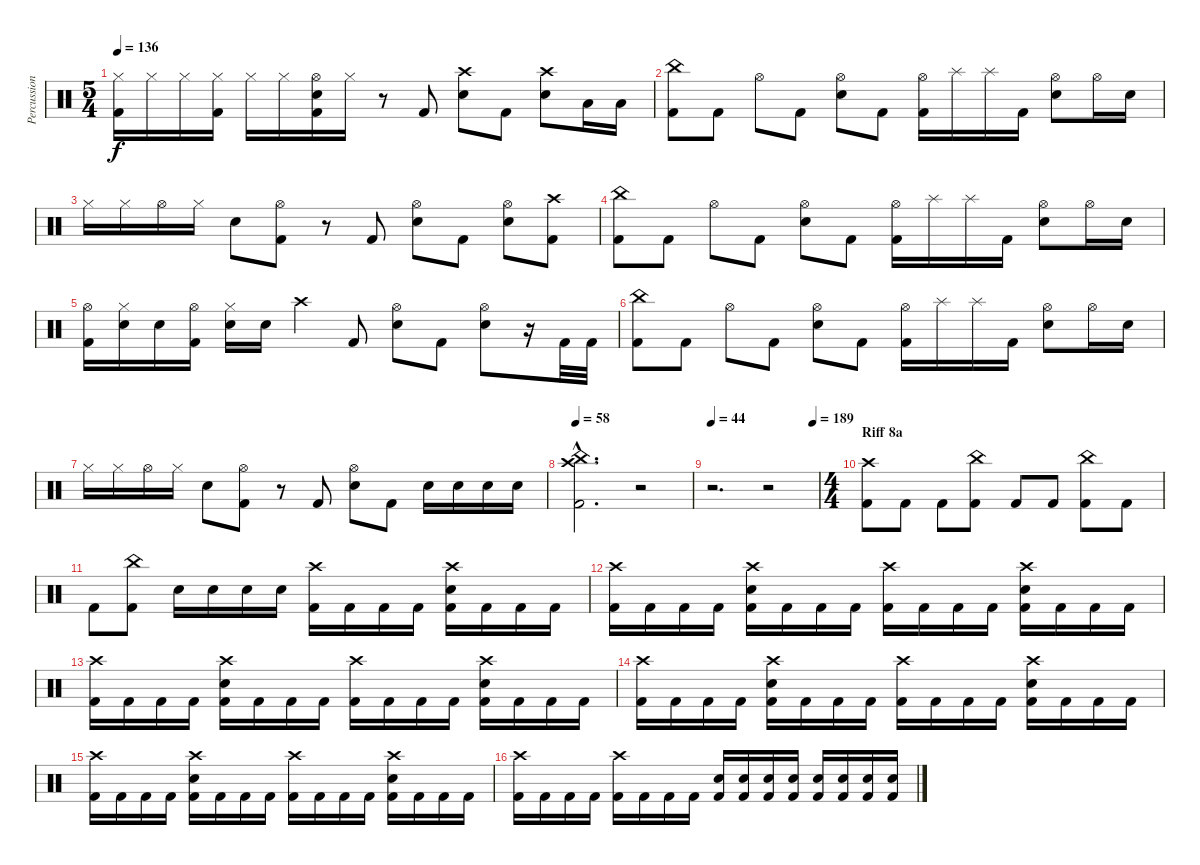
\track ("Percussion" "Percussion") {instrument percussion}
\staff {score}
\articulation defaults
\ts (5 4)
\tempo 136
\clef neutral
\ks c
("Hi-Hat (closed)" "Kick (hit) 2").16{dy f} "Hi-Hat (closed)".16 "Hi-Hat (closed)".16 ("Hi-Hat (closed)" "Kick (hit) 2").16 "Hi-Hat (closed)".16 "Hi-Hat (closed)".16 ("Hi-Hat (open)" "Electric Snare (hit)" "Kick (hit) 2").16 "Hi-Hat (closed)".16 r.8 "Kick (hit) 2".8 ("Crash high (hit)" "Electric Snare (hit)").8 "Kick (hit) 2".8 ("Crash high (hit)" "Electric Snare (hit)").8 "Low Tom (hit)".16 "Low Floor Tom (hit)".16 |
("China (hit)" "Kick (hit) 2").8 "Kick (hit) 2".8 "Hi-Hat (open)".8 "Kick (hit) 2".8 ("Hi-Hat (open)" "Electric Snare (hit)").8 "Kick (hit) 2".8 ("Hi-Hat (open)" "Kick (hit) 2").16 "Splash (hit)".16 "Splash (hit)".16 "Kick (hit) 2".16 ("Hi-Hat (open)" "Electric Snare (hit)").8 "Hi-Hat (open)".16 "Electric Snare (hit)".16 |
"Hi-Hat (closed)".16 "Hi-Hat (closed)".16 "Hi-Hat (open)".16 "Hi-Hat (closed)".16 "Electric Snare (hit)".8 ("Hi-Hat (open)" "Kick (hit) 2").8 r.8 "Kick (hit) 2".8 ("Hi-Hat (open)" "Electric Snare (hit)").8 "Kick (hit) 2".8 ("Hi-Hat (open)" "Electric Snare (hit)").8 ("Crash high (hit)" "Kick (hit) 2").8 |
("China (hit)" "Kick (hit) 2").8 "Kick (hit) 2".8 "Hi-Hat (open)".8 "Kick (hit) 2".8 ("Hi-Hat (open)" "Electric Snare (hit)").8 "Kick (hit) 2".8 ("Hi-Hat (open)" "Kick (hit) 2").16 "Splash (hit)".16 "Splash (hit)".16 "Kick (hit) 2".16 ("Hi-Hat (open)" "Electric Snare (hit)").8 "Hi-Hat (open)".16 "Electric Snare (hit)".16 |
("Hi-Hat (open)" "Kick (hit) 2").16 ("Hi-Hat (closed)" "Electric Snare (hit)").16 "Electric Snare (hit)".16 ("Hi-Hat (open)" "Kick (hit) 2").16 ("Hi-Hat (closed)" "Electric Snare (hit)").16 "Electric Snare (hit)".16 "Crash high (hit)".4 "Kick (hit) 2".8 ("Hi-Hat (open)" "Electric Snare (hit)").8 "Kick (hit) 2".8 ("Hi-Hat (open)" "Electric Snare (hit)").8 r.16 "Kick (hit) 2".32 "Kick (hit) 2".32 |
("China (hit)" "Kick (hit) 2").8 "Kick (hit) 2".8 "Hi-Hat (open)".8 "Kick (hit) 2".8 ("Hi-Hat (open)" "Electric Snare (hit)").8 "Kick (hit) 2".8 ("Hi-Hat (open)" "Kick (hit) 2").16 "Splash (hit)".16 "Splash (hit)".16 "Kick (hit) 2".16 ("Hi-Hat (open)" "Electric Snare (hit)").8 "Hi-Hat (open)".16 "Electric Snare (hit)".16 |
"Hi-Hat (closed)".16 "Hi-Hat (closed)".16 "Hi-Hat (open)".16 "Hi-Hat (closed)".16 "Electric Snare (hit)".8 ("Hi-Hat (open)" "Kick (hit) 2").8 r.8 "Kick (hit) 2".8 ("Hi-Hat (open)" "Electric Snare (hit)").8 "Kick (hit) 2".8 "Electric Snare (hit)".16 "Electric Snare (hit)".16 "Electric Snare (hit)".16 "Electric Snare (hit)".16 |
\tempo 58
("China (hit)"{hac} "Crash high (hit)"{hac} "Kick (hit) 2"{hac}).2{d} r.2 |
\tempo 44
\tempo (189 0.95)
r.2{d} r.2 |
\ts (4 4)
\section ("" "Riff 8a")
("Crash high (hit)" "Kick (hit) 2").8 "Kick (hit) 2".8 "Kick (hit) 2".8 ("China (hit)" "Kick (hit) 2").8 "Kick (hit) 2".8 "Kick (hit) 2".8 ("China (hit)" "Kick (hit) 2").8 "Kick (hit) 2".8 |
"Kick (hit) 2".8 ("China (hit)" "Kick (hit) 2").8 "Electric Snare (hit)".16 "Electric Snare (hit)".16 "Electric Snare (hit)".16 "Electric Snare (hit)".16 ("Crash high (hit)" "Kick (hit) 2").16 "Kick (hit) 2".16 "Kick (hit) 2".16 "Kick (hit) 2".16 ("Crash high (hit)" "Electric Snare (hit)" "Kick (hit) 2").16 "Kick (hit) 2".16 "Kick (hit) 2".16 "Kick (hit) 2".16 |
("Crash high (hit)" "Kick (hit) 2").16 "Kick (hit) 2".16 "Kick (hit) 2".16 "Kick (hit) 2".16 ("Crash high (hit)" "Electric Snare (hit)" "Kick (hit) 2").16 "Kick (hit) 2".16 "Kick (hit) 2".16 "Kick (hit) 2".16 ("Crash high (hit)" "Kick (hit) 2").16 "Kick (hit) 2".16 "Kick (hit) 2".16 "Kick (hit) 2".16 ("Crash high (hit)" "Electric Snare (hit)" "Kick (hit) 2").16 "Kick (hit) 2".16 "Kick (hit) 2".16 "Kick (hit) 2".16 |
("Crash high (hit)" "Kick (hit) 2").16 "Kick (hit) 2".16 "Kick (hit) 2".16 "Kick (hit) 2".16 ("Crash high (hit)" "Electric Snare (hit)" "Kick (hit) 2").16 "Kick (hit) 2".16 "Kick (hit) 2".16 "Kick (hit) 2".16 ("Crash high (hit)" "Kick (hit) 2").16 "Kick (hit) 2".16 "Kick (hit) 2".16 "Kick (hit) 2".16 ("Crash high (hit)" "Electric Snare (hit)" "Kick (hit) 2").16 "Kick (hit) 2".16 "Kick (hit) 2".16 "Kick (hit) 2".16 |
("Crash high (hit)" "Kick (hit) 2").16 "Kick (hit) 2".16 "Kick (hit) 2".16 "Kick (hit) 2".16 ("Crash high (hit)" "Electric Snare (hit)" "Kick (hit) 2").16 "Kick (hit) 2".16 "Kick (hit) 2".16 "Kick (hit) 2".16 ("Crash high (hit)" "Kick (hit) 2").16 "Kick (hit) 2".16 "Kick (hit) 2".16 "Kick (hit) 2".16 ("Crash high (hit)" "Electric Snare (hit)" "Kick (hit) 2").16 "Kick (hit) 2".16 "Kick (hit) 2".16 "Kick (hit) 2".16 |
("Crash high (hit)" "Kick (hit) 2").16 "Kick (hit) 2".16 "Kick (hit) 2".16 "Kick (hit) 2".16 ("Crash high (hit)" "Electric Snare (hit)" "Kick (hit) 2").16 "Kick (hit) 2".16 "Kick (hit) 2".16 "Kick (hit) 2".16 ("Crash high (hit)" "Kick (hit) 2").16 "Kick (hit) 2".16 "Kick (hit) 2".16 "Kick (hit) 2".16 ("Crash high (hit)" "Electric Snare (hit)" "Kick (hit) 2").16 "Kick (hit) 2".16 "Kick (hit) 2".16 "Kick (hit) 2".16 |
("Crash high (hit)" "Kick (hit) 2").16 "Kick (hit) 2".16 "Kick (hit) 2".16 "Kick (hit) 2".16 ("Crash high (hit)" "Kick (hit) 2").16 "Kick (hit) 2".16 "Kick (hit) 2".16 "Kick (hit) 2".16 ("Electric Snare (hit)" "Kick (hit) 2").16 ("Electric Snare (hit)" "Kick (hit) 2").16 ("Electric Snare (hit)" "Kick (hit) 2").16 ("Electric Snare (hit)" "Kick (hit) 2").16 ("Electric Snare (hit)" "Kick (hit) 2").16 ("Electric Snare (hit)" "Kick (hit) 2").16 ("Electric Snare (hit)" "Kick (hit) 2").16 ("Electric Snare (hit)" "Kick (hit) 2").16
